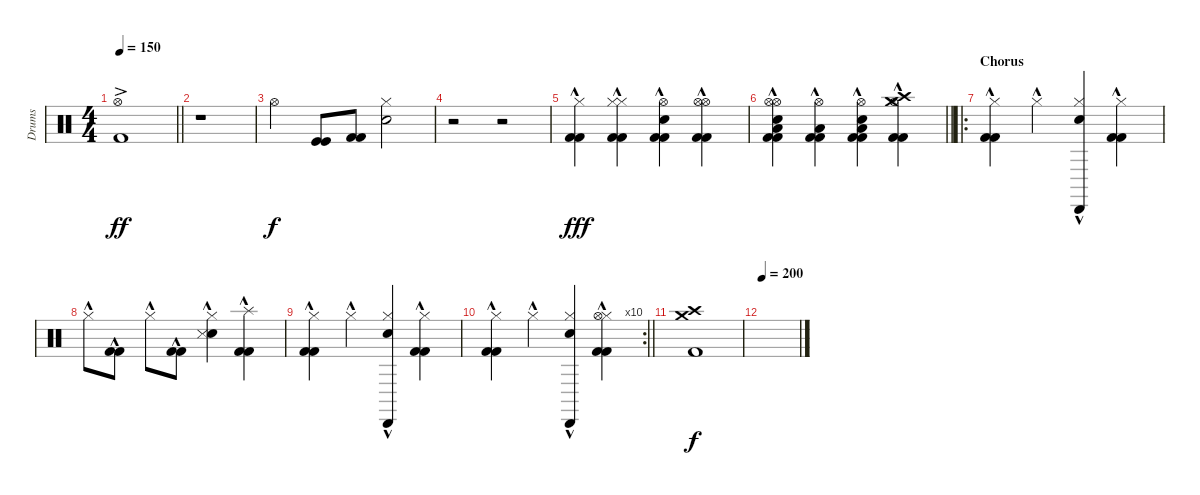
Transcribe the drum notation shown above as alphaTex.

\track ("Drums" "Drums") {instrument percussion}
\staff {score}
\articulation defaults
\ts (4 4)
\tempo 150
\clef neutral
\barLineRight lightlight
\ks c
("Hi-Hat (open)"{ac} "Kick (hit) 2"{ac}).1{dy ff} |
r.1 |
"Hi-Hat (open)".4{dy f} ("Kick (hit)" "Kick (hit)").8 ("Kick (hit) 2" "Kick (hit) 2").8 ("Electric Snare (hit)" "Hi-Hat (closed)").2 |
r.2 r.2 |
("Hi-Hat (closed)"{hac} "Kick (hit) 2"{hac} "Kick (hit) 2"{hac}).4{dy fff} ("Kick (hit) 2"{hac} "Kick (hit) 2"{hac} "Hi-Hat (closed)"{hac} "Hi-Hat (closed)"{hac}).4 ("Kick (hit) 2"{hac} "Kick (hit) 2"{hac} "Hi-Hat (open)"{hac} "Electric Snare (hit)").4 ("Kick (hit) 2"{hac} "Kick (hit) 2"{hac} "Hi-Hat (open)"{hac} "Hi-Hat (open)"{hac}).4 |
\barLineRight lightlight
("Kick (hit) 2"{hac} "Kick (hit) 2"{hac} "Hi-Hat (open)"{hac} "Hi-Hat (open)"{hac} "Low Floor Tom (hit)" "Electric Snare (hit)").4 ("Kick (hit) 2"{hac} "Low Floor Tom (hit)"{hac} "Hi-Hat (open)"{hac} "Kick (hit) 2").4 ("Kick (hit) 2"{hac} "Kick (hit) 2"{hac} "Hi-Hat (open)"{hac} "Low Floor Tom (hit)"{hac} "Electric Snare (hit)").4 ("Hi-Hat (open)"{hac} "Crash medium (hit)"{hac} "Crash high (hit)"{hac} "Kick (hit) 2"{hac} "Kick (hit) 2"{hac}).4 |
\ro
\section ("" "Chorus")
("Hi-Hat (closed)"{hac} "Kick (hit) 2"{hac} "Kick (hit) 2"{hac}).4 "Hi-Hat (closed)"{hac}.4 ("Hi-Hat (closed)"{hac} "Cabasa (hit)"{hac} "Electric Snare (hit)"{hac}).4 ("Hi-Hat (closed)"{hac} "Kick (hit) 2"{hac} "Kick (hit) 2"{hac}).4 |
"Hi-Hat (closed)"{hac}.8 ("Kick (hit) 2"{hac} "Kick (hit) 2"{hac}).8 "Hi-Hat (closed)"{hac}.8 ("Kick (hit) 2"{hac} "Kick (hit) 2"{hac}).8 ("Hi-Hat (closed)" "Electric Snare (hit)"{hac} "Snare (side stick) 3"{hac}).4 ("Splash (hit)"{hac} "Kick (hit) 2"{hac} "Kick (hit) 2"{hac}).4 |
("Hi-Hat (closed)"{hac} "Kick (hit) 2"{hac} "Kick (hit) 2"{hac}).4 "Hi-Hat (closed)"{hac}.4 ("Hi-Hat (closed)"{hac} "Cabasa (hit)"{hac} "Electric Snare (hit)"{hac}).4 ("Hi-Hat (closed)"{hac} "Kick (hit) 2"{hac} "Kick (hit) 2"{hac}).4 |
\rc 10
\barLineRight lightlight
("Hi-Hat (closed)"{hac} "Kick (hit) 2"{hac} "Kick (hit) 2"{hac}).4 "Hi-Hat (closed)"{hac}.4 ("Hi-Hat (closed)"{hac} "Cabasa (hit)"{hac} "Electric Snare (hit)"{hac}).4 ("Hi-Hat (closed)"{hac} "Kick (hit) 2"{hac} "Kick (hit) 2"{hac} "Hi-Hat (open)"{hac}).4 |
("Crash high (hit)" "Crash medium (hit)" "Kick (hit) 2").1{dy f} |
\tempo 200
